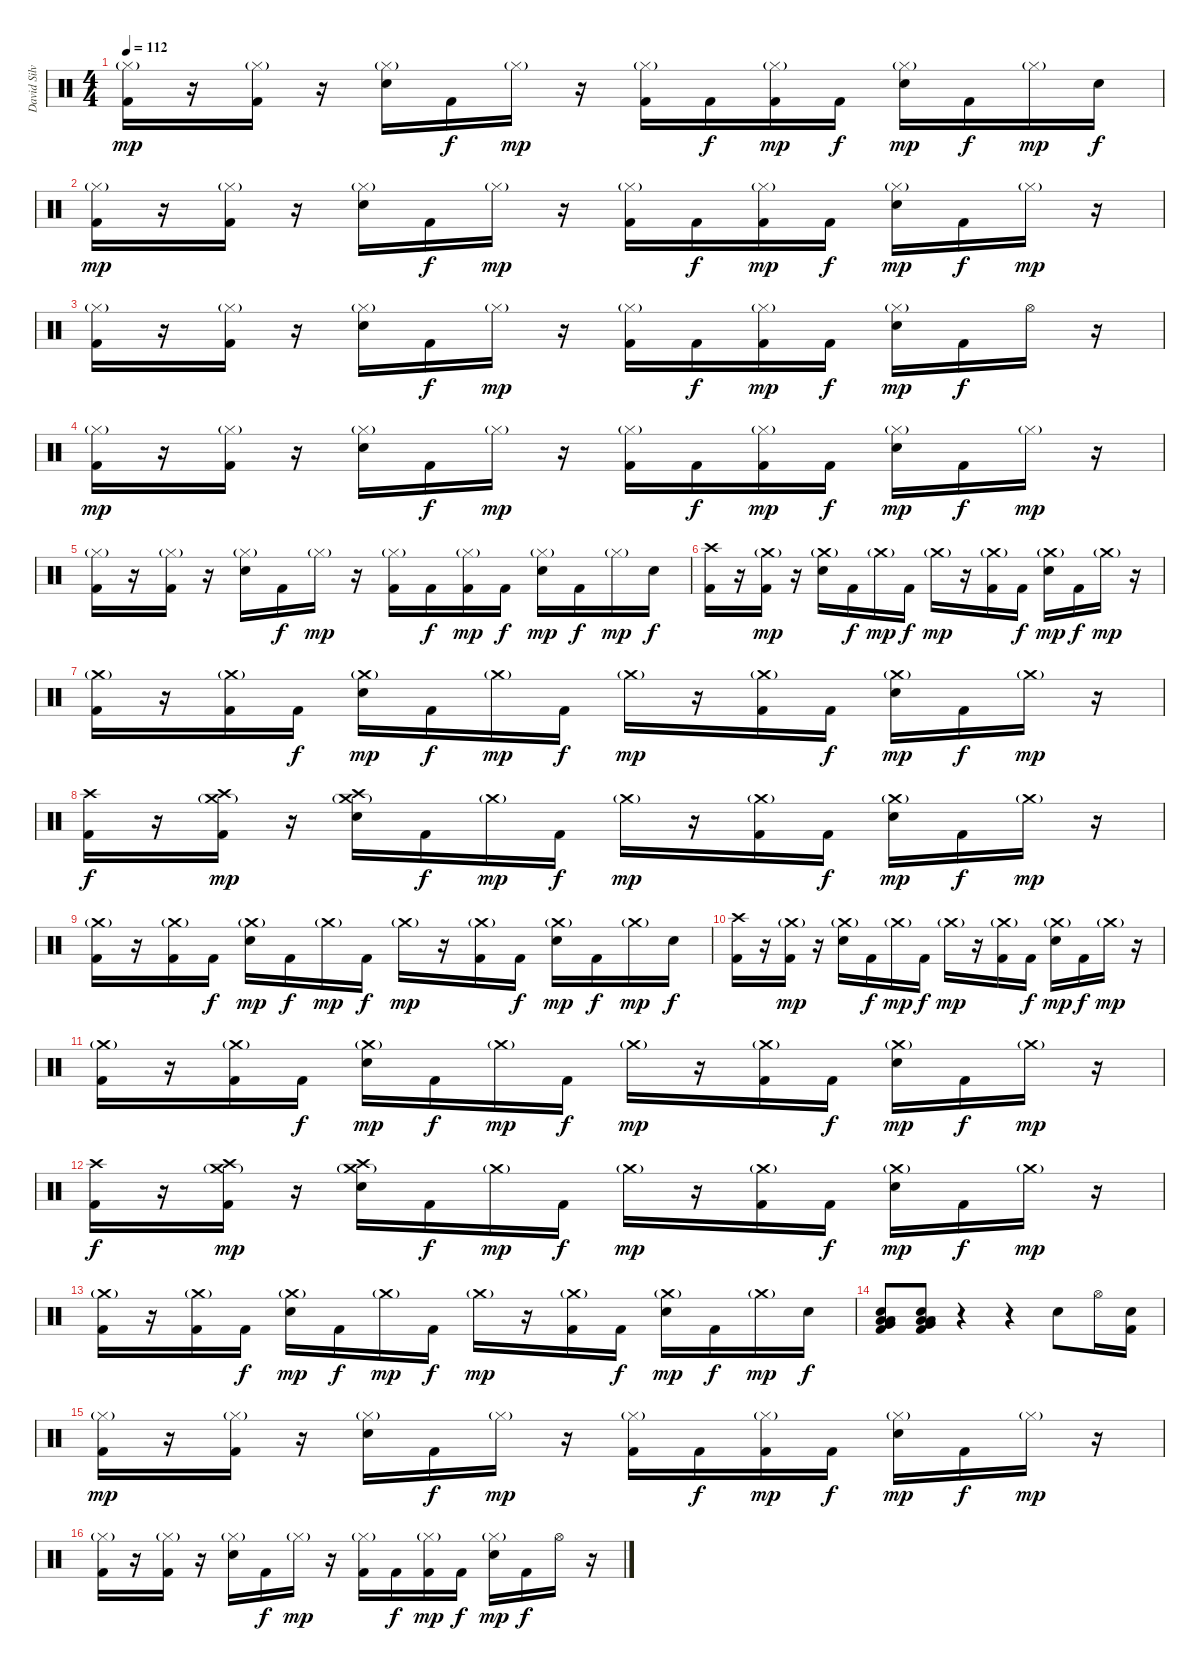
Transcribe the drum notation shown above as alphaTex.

\track ("David Silveria" "David Silv") {instrument percussion}
\staff {score}
\articulation defaults
\ts (4 4)
\tempo 112
\clef neutral
\ks c
("Hi-Hat (closed)"{g} "Kick (hit) 2").16{dy mp} r.16 ("Hi-Hat (closed)"{g} "Kick (hit) 2").16 r.16 ("Hi-Hat (closed)"{g} "Electric Snare (hit)").16 "Kick (hit) 2".16{dy f} "Hi-Hat (closed)"{g}.16{dy mp} r.16 ("Hi-Hat (closed)"{g} "Kick (hit) 2").16 "Kick (hit) 2".16{dy f} ("Hi-Hat (closed)"{g} "Kick (hit) 2").16{dy mp} "Kick (hit) 2".16{dy f} ("Hi-Hat (closed)"{g} "Electric Snare (hit)").16{dy mp} "Kick (hit) 2".16{dy f} "Hi-Hat (closed)"{g}.16{dy mp} "Electric Snare (hit)".16{dy f} |
("Hi-Hat (closed)"{g} "Kick (hit) 2").16{dy mp} r.16 ("Hi-Hat (closed)"{g} "Kick (hit) 2").16 r.16 ("Hi-Hat (closed)"{g} "Electric Snare (hit)").16 "Kick (hit) 2".16{dy f} "Hi-Hat (closed)"{g}.16{dy mp} r.16 ("Hi-Hat (closed)"{g} "Kick (hit) 2").16 "Kick (hit) 2".16{dy f} ("Hi-Hat (closed)"{g} "Kick (hit) 2").16{dy mp} "Kick (hit) 2".16{dy f} ("Hi-Hat (closed)"{g} "Electric Snare (hit)").16{dy mp} "Kick (hit) 2".16{dy f} "Hi-Hat (closed)"{g}.16{dy mp} r.16 |
("Hi-Hat (closed)"{g} "Kick (hit) 2").16 r.16 ("Hi-Hat (closed)"{g} "Kick (hit) 2").16 r.16 ("Hi-Hat (closed)"{g} "Electric Snare (hit)").16 "Kick (hit) 2".16{dy f} "Hi-Hat (closed)"{g}.16{dy mp} r.16 ("Hi-Hat (closed)"{g} "Kick (hit) 2").16 "Kick (hit) 2".16{dy f} ("Hi-Hat (closed)"{g} "Kick (hit) 2").16{dy mp} "Kick (hit) 2".16{dy f} ("Hi-Hat (closed)"{g} "Electric Snare (hit)").16{dy mp} "Kick (hit) 2".16{dy f} "Hi-Hat (open)".16 r.16 |
("Hi-Hat (closed)"{g} "Kick (hit) 2").16{dy mp} r.16 ("Hi-Hat (closed)"{g} "Kick (hit) 2").16 r.16 ("Hi-Hat (closed)"{g} "Electric Snare (hit)").16 "Kick (hit) 2".16{dy f} "Hi-Hat (closed)"{g}.16{dy mp} r.16 ("Hi-Hat (closed)"{g} "Kick (hit) 2").16 "Kick (hit) 2".16{dy f} ("Hi-Hat (closed)"{g} "Kick (hit) 2").16{dy mp} "Kick (hit) 2".16{dy f} ("Hi-Hat (closed)"{g} "Electric Snare (hit)").16{dy mp} "Kick (hit) 2".16{dy f} "Hi-Hat (closed)"{g}.16{dy mp} r.16 |
("Hi-Hat (closed)"{g} "Kick (hit) 2").16 r.16 ("Hi-Hat (closed)"{g} "Kick (hit) 2").16 r.16 ("Hi-Hat (closed)"{g} "Electric Snare (hit)").16 "Kick (hit) 2".16{dy f} "Hi-Hat (closed)"{g}.16{dy mp} r.16 ("Hi-Hat (closed)"{g} "Kick (hit) 2").16 "Kick (hit) 2".16{dy f} ("Hi-Hat (closed)"{g} "Kick (hit) 2").16{dy mp} "Kick (hit) 2".16{dy f} ("Hi-Hat (closed)"{g} "Electric Snare (hit)").16{dy mp} "Kick (hit) 2".16{dy f} "Hi-Hat (closed)"{g}.16{dy mp} "Electric Snare (hit)".16{dy f} |
("Crash high (hit)" "Kick (hit) 2").16 r.16 ("Crash medium (hit)"{g} "Kick (hit) 2").16{dy mp} r.16 ("Crash medium (hit)"{g} "Electric Snare (hit)").16 "Kick (hit) 2".16{dy f} "Crash medium (hit)"{g}.16{dy mp} "Kick (hit) 2".16{dy f} "Crash medium (hit)"{g}.16{dy mp} r.16 ("Crash medium (hit)"{g} "Kick (hit) 2").16 "Kick (hit) 2".16{dy f} ("Crash medium (hit)"{g} "Electric Snare (hit)").16{dy mp} "Kick (hit) 2".16{dy f} "Crash medium (hit)"{g}.16{dy mp} r.16 |
("Crash medium (hit)"{g} "Kick (hit) 2").16 r.16 ("Crash medium (hit)"{g} "Kick (hit) 2").16 "Kick (hit) 2".16{dy f} ("Crash medium (hit)"{g} "Electric Snare (hit)").16{dy mp} "Kick (hit) 2".16{dy f} "Crash medium (hit)"{g}.16{dy mp} "Kick (hit) 2".16{dy f} "Crash medium (hit)"{g}.16{dy mp} r.16 ("Crash medium (hit)"{g} "Kick (hit) 2").16 "Kick (hit) 2".16{dy f} ("Crash medium (hit)"{g} "Electric Snare (hit)").16{dy mp} "Kick (hit) 2".16{dy f} "Crash medium (hit)"{g}.16{dy mp} r.16 |
("Crash high (hit)" "Kick (hit) 2").16{dy f} r.16 ("Crash high (hit)" "Crash medium (hit)"{g} "Kick (hit) 2").16{dy mp} r.16 ("Crash high (hit)" "Crash medium (hit)"{g} "Electric Snare (hit)").16 "Kick (hit) 2".16{dy f} "Crash medium (hit)"{g}.16{dy mp} "Kick (hit) 2".16{dy f} "Crash medium (hit)"{g}.16{dy mp} r.16 ("Crash medium (hit)"{g} "Kick (hit) 2").16 "Kick (hit) 2".16{dy f} ("Crash medium (hit)"{g} "Electric Snare (hit)").16{dy mp} "Kick (hit) 2".16{dy f} "Crash medium (hit)"{g}.16{dy mp} r.16 |
("Crash medium (hit)"{g} "Kick (hit) 2").16 r.16 ("Crash medium (hit)"{g} "Kick (hit) 2").16 "Kick (hit) 2".16{dy f} ("Crash medium (hit)"{g} "Electric Snare (hit)").16{dy mp} "Kick (hit) 2".16{dy f} "Crash medium (hit)"{g}.16{dy mp} "Kick (hit) 2".16{dy f} "Crash medium (hit)"{g}.16{dy mp} r.16 ("Crash medium (hit)"{g} "Kick (hit) 2").16 "Kick (hit) 2".16{dy f} ("Crash medium (hit)"{g} "Electric Snare (hit)").16{dy mp} "Kick (hit) 2".16{dy f} "Crash medium (hit)"{g}.16{dy mp} "Electric Snare (hit)".16{dy f} |
("Crash high (hit)" "Kick (hit) 2").16 r.16 ("Crash medium (hit)"{g} "Kick (hit) 2").16{dy mp} r.16 ("Crash medium (hit)"{g} "Electric Snare (hit)").16 "Kick (hit) 2".16{dy f} "Crash medium (hit)"{g}.16{dy mp} "Kick (hit) 2".16{dy f} "Crash medium (hit)"{g}.16{dy mp} r.16 ("Crash medium (hit)"{g} "Kick (hit) 2").16 "Kick (hit) 2".16{dy f} ("Crash medium (hit)"{g} "Electric Snare (hit)").16{dy mp} "Kick (hit) 2".16{dy f} "Crash medium (hit)"{g}.16{dy mp} r.16 |
("Crash medium (hit)"{g} "Kick (hit) 2").16 r.16 ("Crash medium (hit)"{g} "Kick (hit) 2").16 "Kick (hit) 2".16{dy f} ("Crash medium (hit)"{g} "Electric Snare (hit)").16{dy mp} "Kick (hit) 2".16{dy f} "Crash medium (hit)"{g}.16{dy mp} "Kick (hit) 2".16{dy f} "Crash medium (hit)"{g}.16{dy mp} r.16 ("Crash medium (hit)"{g} "Kick (hit) 2").16 "Kick (hit) 2".16{dy f} ("Crash medium (hit)"{g} "Electric Snare (hit)").16{dy mp} "Kick (hit) 2".16{dy f} "Crash medium (hit)"{g}.16{dy mp} r.16 |
("Crash high (hit)" "Kick (hit) 2").16{dy f} r.16 ("Crash high (hit)" "Crash medium (hit)"{g} "Kick (hit) 2").16{dy mp} r.16 ("Crash high (hit)" "Crash medium (hit)"{g} "Electric Snare (hit)").16 "Kick (hit) 2".16{dy f} "Crash medium (hit)"{g}.16{dy mp} "Kick (hit) 2".16{dy f} "Crash medium (hit)"{g}.16{dy mp} r.16 ("Crash medium (hit)"{g} "Kick (hit) 2").16 "Kick (hit) 2".16{dy f} ("Crash medium (hit)"{g} "Electric Snare (hit)").16{dy mp} "Kick (hit) 2".16{dy f} "Crash medium (hit)"{g}.16{dy mp} r.16 |
("Crash medium (hit)"{g} "Kick (hit) 2").16 r.16 ("Crash medium (hit)"{g} "Kick (hit) 2").16 "Kick (hit) 2".16{dy f} ("Crash medium (hit)"{g} "Electric Snare (hit)").16{dy mp} "Kick (hit) 2".16{dy f} "Crash medium (hit)"{g}.16{dy mp} "Kick (hit) 2".16{dy f} "Crash medium (hit)"{g}.16{dy mp} r.16 ("Crash medium (hit)"{g} "Kick (hit) 2").16 "Kick (hit) 2".16{dy f} ("Crash medium (hit)"{g} "Electric Snare (hit)").16{dy mp} "Kick (hit) 2".16{dy f} "Crash medium (hit)"{g}.16{dy mp} "Electric Snare (hit)".16{dy f} |
("Electric Snare (hit)" "Very Low Tom (hit)" "Low Floor Tom (hit)" "Low Floor Tom (hit)" "Kick (hit) 2").8 ("Electric Snare (hit)" "Very Low Tom (hit)" "Low Floor Tom (hit)" "Low Floor Tom (hit)" "Kick (hit) 2").8 r.4 r.4 "Electric Snare (hit)".8 "Hi-Hat (open)".16 ("Electric Snare (hit)" "Kick (hit) 2").16 |
("Hi-Hat (closed)"{g} "Kick (hit) 2").16{dy mp} r.16 ("Hi-Hat (closed)"{g} "Kick (hit) 2").16 r.16 ("Hi-Hat (closed)"{g} "Electric Snare (hit)").16 "Kick (hit) 2".16{dy f} "Hi-Hat (closed)"{g}.16{dy mp} r.16 ("Hi-Hat (closed)"{g} "Kick (hit) 2").16 "Kick (hit) 2".16{dy f} ("Hi-Hat (closed)"{g} "Kick (hit) 2").16{dy mp} "Kick (hit) 2".16{dy f} ("Hi-Hat (closed)"{g} "Electric Snare (hit)").16{dy mp} "Kick (hit) 2".16{dy f} "Hi-Hat (closed)"{g}.16{dy mp} r.16 |
("Hi-Hat (closed)"{g} "Kick (hit) 2").16 r.16 ("Hi-Hat (closed)"{g} "Kick (hit) 2").16 r.16 ("Hi-Hat (closed)"{g} "Electric Snare (hit)").16 "Kick (hit) 2".16{dy f} "Hi-Hat (closed)"{g}.16{dy mp} r.16 ("Hi-Hat (closed)"{g} "Kick (hit) 2").16 "Kick (hit) 2".16{dy f} ("Hi-Hat (closed)"{g} "Kick (hit) 2").16{dy mp} "Kick (hit) 2".16{dy f} ("Hi-Hat (closed)"{g} "Electric Snare (hit)").16{dy mp} "Kick (hit) 2".16{dy f} "Hi-Hat (open)".16 r.16
